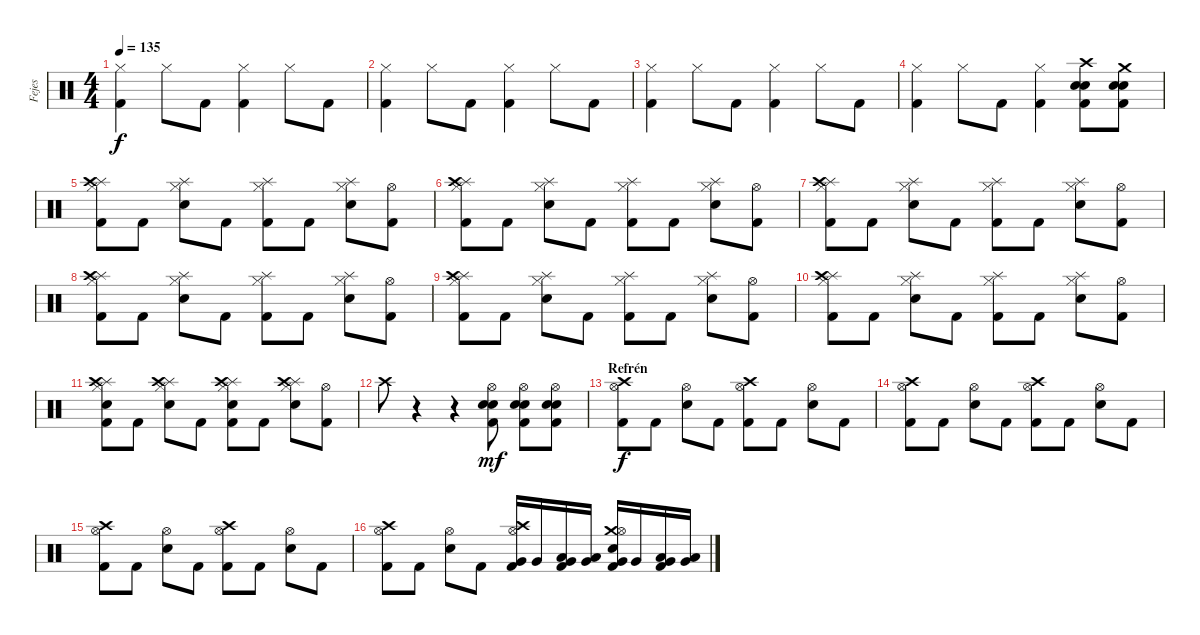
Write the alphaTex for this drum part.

\track ("Fejes" "Fejes") {instrument percussion}
\staff {score}
\articulation defaults
\ts (4 4)
\tempo 135
\clef neutral
\ks c
("Hi-Hat (closed)" "Kick (hit) 2").4{dy f} "Hi-Hat (closed)".8 "Kick (hit) 2".8 ("Hi-Hat (closed)" "Kick (hit) 2").4 "Hi-Hat (closed)".8 "Kick (hit) 2".8 |
("Hi-Hat (closed)" "Kick (hit) 2").4 "Hi-Hat (closed)".8 "Kick (hit) 2".8 ("Hi-Hat (closed)" "Kick (hit) 2").4 "Hi-Hat (closed)".8 "Kick (hit) 2".8 |
("Hi-Hat (closed)" "Kick (hit) 2").4 "Hi-Hat (closed)".8 "Kick (hit) 2".8 ("Hi-Hat (closed)" "Kick (hit) 2").4 "Hi-Hat (closed)".8 "Kick (hit) 2".8 |
("Hi-Hat (closed)" "Kick (hit) 2").4 "Hi-Hat (closed)".8 "Kick (hit) 2".8 ("Hi-Hat (closed)" "Kick (hit) 2").4 ("Crash high (hit)" "Electric Snare (hit)" "Snare (hit) 2" "Kick (hit) 2").8 ("Crash medium (hit)" "Electric Snare (hit)" "Snare (hit) 2" "Kick (hit) 2").8 |
("Splash (hit)" "Hi-Hat (closed)" "Crash high (hit)" "Kick (hit) 2").8 "Kick (hit) 2".8 ("Splash (hit)" "Hi-Hat (closed)" "Electric Snare (hit)").8 "Kick (hit) 2".8 ("Splash (hit)" "Hi-Hat (closed)" "Kick (hit) 2").8 "Kick (hit) 2".8 ("Splash (hit)" "Hi-Hat (closed)" "Electric Snare (hit)").8 ("Hi-Hat (open)" "Kick (hit) 2").8 |
("Splash (hit)" "Hi-Hat (closed)" "Crash high (hit)" "Kick (hit) 2").8 "Kick (hit) 2".8 ("Splash (hit)" "Hi-Hat (closed)" "Electric Snare (hit)").8 "Kick (hit) 2".8 ("Splash (hit)" "Hi-Hat (closed)" "Kick (hit) 2").8 "Kick (hit) 2".8 ("Splash (hit)" "Hi-Hat (closed)" "Electric Snare (hit)").8 ("Hi-Hat (open)" "Kick (hit) 2").8 |
("Splash (hit)" "Hi-Hat (closed)" "Crash high (hit)" "Kick (hit) 2").8 "Kick (hit) 2".8 ("Splash (hit)" "Hi-Hat (closed)" "Electric Snare (hit)").8 "Kick (hit) 2".8 ("Splash (hit)" "Hi-Hat (closed)" "Kick (hit) 2").8 "Kick (hit) 2".8 ("Splash (hit)" "Hi-Hat (closed)" "Electric Snare (hit)").8 ("Hi-Hat (open)" "Kick (hit) 2").8 |
("Splash (hit)" "Hi-Hat (closed)" "Crash high (hit)" "Kick (hit) 2").8 "Kick (hit) 2".8 ("Splash (hit)" "Hi-Hat (closed)" "Electric Snare (hit)").8 "Kick (hit) 2".8 ("Splash (hit)" "Hi-Hat (closed)" "Kick (hit) 2").8 "Kick (hit) 2".8 ("Splash (hit)" "Hi-Hat (closed)" "Electric Snare (hit)").8 ("Hi-Hat (open)" "Kick (hit) 2").8 |
("Splash (hit)" "Hi-Hat (closed)" "Crash high (hit)" "Kick (hit) 2").8 "Kick (hit) 2".8 ("Splash (hit)" "Hi-Hat (closed)" "Electric Snare (hit)").8 "Kick (hit) 2".8 ("Splash (hit)" "Hi-Hat (closed)" "Kick (hit) 2").8 "Kick (hit) 2".8 ("Splash (hit)" "Hi-Hat (closed)" "Electric Snare (hit)").8 ("Hi-Hat (open)" "Kick (hit) 2").8 |
("Splash (hit)" "Hi-Hat (closed)" "Crash high (hit)" "Kick (hit) 2").8 "Kick (hit) 2".8 ("Splash (hit)" "Hi-Hat (closed)" "Electric Snare (hit)").8 "Kick (hit) 2".8 ("Splash (hit)" "Hi-Hat (closed)" "Kick (hit) 2").8 "Kick (hit) 2".8 ("Splash (hit)" "Hi-Hat (closed)" "Electric Snare (hit)").8 ("Hi-Hat (open)" "Kick (hit) 2").8 |
("Splash (hit)" "Hi-Hat (closed)" "Snare (hit) 2" "Crash high (hit)" "Kick (hit) 2").8 "Kick (hit) 2".8 ("Splash (hit)" "Hi-Hat (closed)" "Snare (hit) 2" "Crash high (hit)").8 "Kick (hit) 2".8 ("Splash (hit)" "Hi-Hat (closed)" "Snare (hit) 2" "Crash high (hit)" "Kick (hit) 2").8 "Kick (hit) 2".8 ("Splash (hit)" "Hi-Hat (closed)" "Snare (hit) 2" "Crash high (hit)").8 ("Hi-Hat (open)" "Kick (hit) 2").8 |
"Crash high (hit)".8 r.4 r.4 ("Hi-Hat (open)" "Electric Snare (hit)" "Snare (hit) 2" "Kick (hit) 2").8{dy mf} ("Hi-Hat (open)" "Electric Snare (hit)" "Snare (hit) 2" "Kick (hit) 2").8 ("Hi-Hat (open)" "Electric Snare (hit)" "Snare (hit) 2" "Kick (hit) 2").8 |
\section ("" "Refrén")
("Crash high (hit)" "Hi-Hat (open)" "Kick (hit) 2").8{dy f} "Kick (hit) 2".8 ("Hi-Hat (open)" "Electric Snare (hit)").8 "Kick (hit) 2".8 ("Crash high (hit)" "Hi-Hat (open)" "Kick (hit) 2").8 "Kick (hit) 2".8 ("Hi-Hat (open)" "Electric Snare (hit)").8 "Kick (hit) 2".8 |
("Crash high (hit)" "Hi-Hat (open)" "Kick (hit) 2").8 "Kick (hit) 2".8 ("Hi-Hat (open)" "Electric Snare (hit)").8 "Kick (hit) 2".8 ("Crash high (hit)" "Hi-Hat (open)" "Kick (hit) 2").8 "Kick (hit) 2".8 ("Hi-Hat (open)" "Electric Snare (hit)").8 "Kick (hit) 2".8 |
("Crash high (hit)" "Hi-Hat (open)" "Kick (hit) 2").8 "Kick (hit) 2".8 ("Hi-Hat (open)" "Electric Snare (hit)").8 "Kick (hit) 2".8 ("Crash high (hit)" "Hi-Hat (open)" "Kick (hit) 2").8 "Kick (hit) 2".8 ("Hi-Hat (open)" "Electric Snare (hit)").8 "Kick (hit) 2".8 |
("Crash high (hit)" "Hi-Hat (open)" "Kick (hit) 2").8 "Kick (hit) 2".8 ("Hi-Hat (open)" "Electric Snare (hit)").8 "Kick (hit) 2".8 ("Crash high (hit)" "Hi-Hat (open)" "Very Low Tom (hit)" "Kick (hit) 2").16 "Very Low Tom (hit)".16 ("Very Low Tom (hit)" "Low Tom (hit)" "Kick (hit) 2").16 ("Very Low Tom (hit)" "Low Tom (hit)").16 ("Crash medium (hit)" "Hi-Hat (open)" "Electric Snare (hit)" "Very Low Tom (hit)" "Kick (hit) 2").16 "Very Low Tom (hit)".16 ("Very Low Tom (hit)" "Low Tom (hit)" "Kick (hit) 2").16 ("Very Low Tom (hit)" "Low Tom (hit)").16
